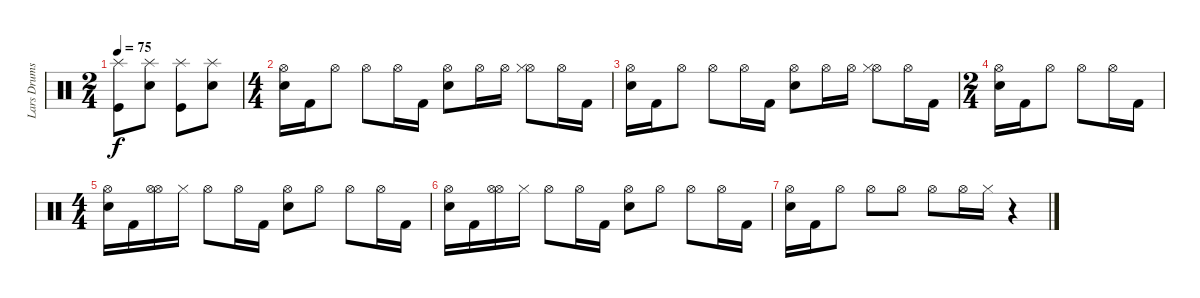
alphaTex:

\track ("Lars Drums" "Lars Drums") {instrument percussion}
\staff {score}
\articulation defaults
\ts (2 4)
\tempo 75
\clef neutral
\ks c
("Splash (hit)" "Kick (hit)").8{dy f} ("Splash (hit)" "Snare (hit) 2").8 ("Splash (hit)" "Kick (hit)").8 ("Splash (hit)" "Snare (hit) 2").8 |
\ts (4 4)
("Hi-Hat (open)" "Snare (hit) 2").16 "Kick (hit) 2".16 "Hi-Hat (open)".8 "Hi-Hat (open)".8 "Hi-Hat (open)".16 "Kick (hit) 2".16 ("Hi-Hat (open)" "Snare (hit) 2").8 "Hi-Hat (open)".16 "Hi-Hat (open)".16 ("Hi-Hat (open)" "Hi-Hat (closed)").8 "Hi-Hat (open)".16 "Kick (hit) 2".16 |
("Hi-Hat (open)" "Snare (hit) 2").16 "Kick (hit) 2".16 "Hi-Hat (open)".8 "Hi-Hat (open)".8 "Hi-Hat (open)".16 "Kick (hit) 2".16 ("Hi-Hat (open)" "Snare (hit) 2").8 "Hi-Hat (open)".16 "Hi-Hat (open)".16 ("Hi-Hat (open)" "Hi-Hat (closed)").8 "Hi-Hat (open)".16 "Kick (hit) 2".16 |
\ts (2 4)
("Hi-Hat (open)" "Snare (hit) 2").16 "Kick (hit) 2".16 "Hi-Hat (open)".8 "Hi-Hat (open)".8 "Hi-Hat (open)".16 "Kick (hit) 2".16 |
\ts (4 4)
("Hi-Hat (open)" "Snare (hit) 2").16 "Kick (hit) 2".16 ("Hi-Hat (open)" "Hi-Hat (open)").16 "Hi-Hat (closed)".16 "Hi-Hat (open)".8 "Hi-Hat (open)".16 "Kick (hit) 2".16 ("Hi-Hat (open)" "Snare (hit) 2").8 "Hi-Hat (open)".8 "Hi-Hat (open)".8 "Hi-Hat (open)".16 "Kick (hit) 2".16 |
("Hi-Hat (open)" "Snare (hit) 2").16 "Kick (hit) 2".16 ("Hi-Hat (open)" "Hi-Hat (open)").16 "Hi-Hat (closed)".16 "Hi-Hat (open)".8 "Hi-Hat (open)".16 "Kick (hit) 2".16 ("Hi-Hat (open)" "Snare (hit) 2").8 "Hi-Hat (open)".8 "Hi-Hat (open)".8 "Hi-Hat (open)".16 "Kick (hit) 2".16 |
("Hi-Hat (open)" "Snare (hit) 2").16 "Kick (hit) 2".16 "Hi-Hat (open)".8 "Hi-Hat (open)".8 "Hi-Hat (open)".8 "Hi-Hat (open)".8 "Hi-Hat (open)".16 "Hi-Hat (closed)".16 r.4
